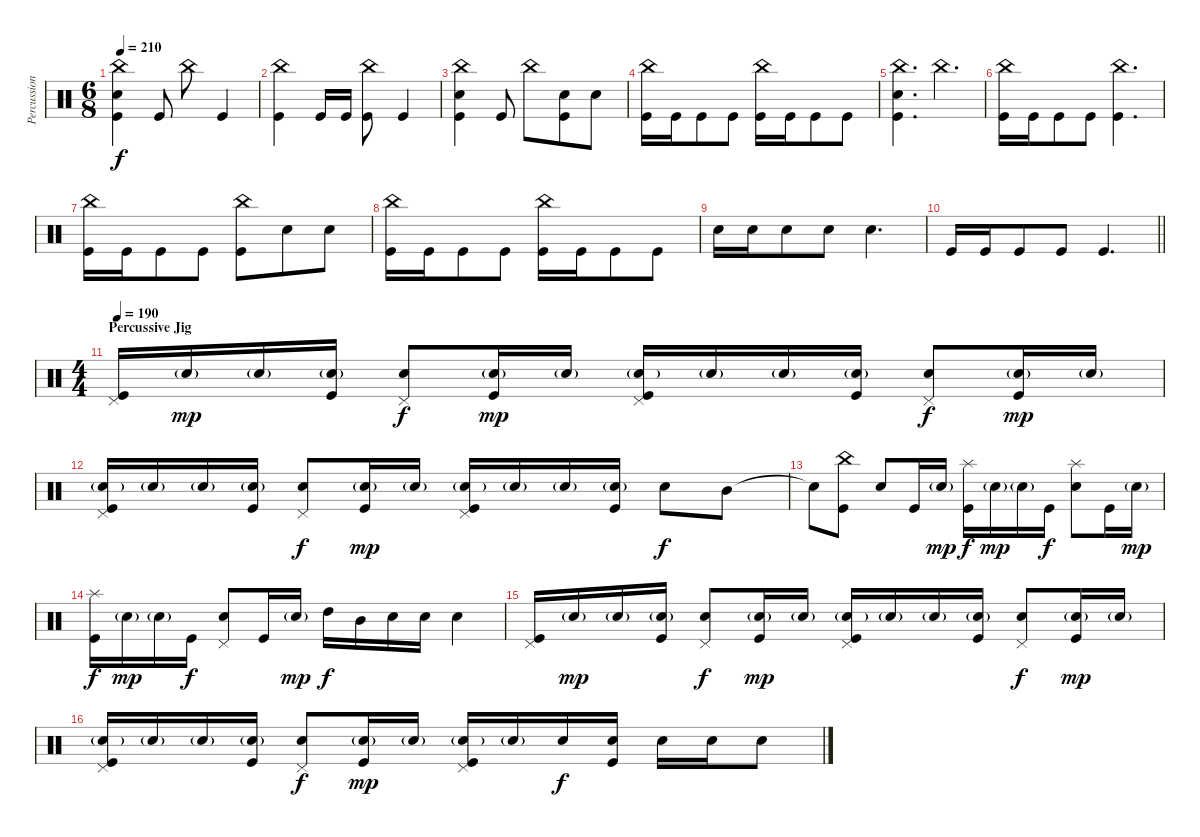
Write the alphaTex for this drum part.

\track ("Percussion" "Percussion") {instrument percussion}
\staff {score}
\articulation defaults
\ts (6 8)
\tempo 210
\clef neutral
\ks c
("China (hit)" "Electric Snare (hit)" "Kick (hit)").4{dy f} "Kick (hit)".8 "China (hit)".8 "Kick (hit)".4 |
("China (hit)" "Kick (hit)").4 "Kick (hit)".16 "Kick (hit)".16 ("China (hit)" "Kick (hit)").8 "Kick (hit)".4 |
("China (hit)" "Electric Snare (hit)" "Kick (hit)").4 "Kick (hit)".8 "China (hit)".8 ("Electric Snare (hit)" "Kick (hit)").8 "Electric Snare (hit)".8 |
("China (hit)" "Kick (hit)").16 "Kick (hit)".16 "Kick (hit)".8 "Kick (hit)".8 ("China (hit)" "Kick (hit)").16 "Kick (hit)".16 "Kick (hit)".8 "Kick (hit)".8 |
("China (hit)" "Electric Snare (hit)" "Kick (hit)").4{d} "China (hit)".4{d} |
("China (hit)" "Kick (hit)").16 "Kick (hit)".16 "Kick (hit)".8 "Kick (hit)".8 ("China (hit)" "Kick (hit)").4{d} |
("China (hit)" "Kick (hit)").16 "Kick (hit)".16 "Kick (hit)".8 "Kick (hit)".8 ("China (hit)" "Kick (hit)").8 "Electric Snare (hit)".8 "Electric Snare (hit)".8 |
("China (hit)" "Kick (hit)").16 "Kick (hit)".16 "Kick (hit)".8 "Kick (hit)".8 ("China (hit)" "Kick (hit)").16 "Kick (hit)".16 "Kick (hit)".8 "Kick (hit)".8 |
"Electric Snare (hit)".16 "Electric Snare (hit)".16 "Electric Snare (hit)".8 "Electric Snare (hit)".8 "Electric Snare (hit)".4{d} |
\barLineRight lightlight "Kick (hit)".16 "Kick (hit)".16 "Kick (hit)".8 "Kick (hit)".8 "Kick (hit)".4{d}
|
\ts (4 4)
\section ("" "Percussive Jig")
\tempo 190
("Pedal Hi-Hat (hit)" "Kick (hit)").16 "Electric Snare (hit)"{g}.16{dy mp} "Electric Snare (hit)"{g}.16 ("Electric Snare (hit)"{g} "Kick (hit)").16 ("Pedal Hi-Hat (hit)" "Electric Snare (hit)").8{dy f} ("Electric Snare (hit)"{g} "Kick (hit)").16{dy mp} "Electric Snare (hit)"{g}.16 ("Pedal Hi-Hat (hit)" "Electric Snare (hit)"{g} "Kick (hit)").16 "Electric Snare (hit)"{g}.16 "Electric Snare (hit)"{g}.16 ("Electric Snare (hit)"{g} "Kick (hit)").16 ("Pedal Hi-Hat (hit)" "Electric Snare (hit)").8{dy f} ("Electric Snare (hit)"{g} "Kick (hit)").16{dy mp} "Electric Snare (hit)"{g}.16 |
("Pedal Hi-Hat (hit)" "Electric Snare (hit)"{g} "Kick (hit)").16 "Electric Snare (hit)"{g}.16 "Electric Snare (hit)"{g}.16 ("Electric Snare (hit)"{g} "Kick (hit)").16 ("Pedal Hi-Hat (hit)" "Electric Snare (hit)").8{dy f} ("Electric Snare (hit)"{g} "Kick (hit)").16{dy mp} "Electric Snare (hit)"{g}.16 ("Pedal Hi-Hat (hit)" "Electric Snare (hit)"{g} "Kick (hit)").16 "Electric Snare (hit)"{g}.16 "Electric Snare (hit)"{g}.16 ("Electric Snare (hit)"{g} "Kick (hit)").16 "Electric Snare (hit)".8{dy f} "Mid Tom (hit)".8 |
"Snare (hit)"{t}.8 ("China (hit)" "Kick (hit)").8 "Electric Snare (hit)".8 "Kick (hit)".16 "Electric Snare (hit)"{g}.16{dy mp} ("Splash (hit)" "Kick (hit)").16{dy f} "Electric Snare (hit)"{g}.16{dy mp} "Electric Snare (hit)"{g}.16 "Kick (hit)".16{dy f} ("Splash (hit)" "Electric Snare (hit)").8 "Kick (hit)".16 "Electric Snare (hit)"{g}.16{dy mp} |
("Splash (hit)" "Kick (hit)").16{dy f} "Electric Snare (hit)"{g}.16{dy mp} "Electric Snare (hit)"{g}.16 "Kick (hit)".16{dy f} ("Pedal Hi-Hat (hit)" "Electric Snare (hit)").8 "Kick (hit)".16 "Electric Snare (hit)"{g}.16{dy mp} "High Tom (hit)".16{dy f} "Mid Tom (hit)".16 "Electric Snare (hit)".16 "Electric Snare (hit)".16 "Electric Snare (hit)".4 |
("Pedal Hi-Hat (hit)" "Kick (hit)").16 "Electric Snare (hit)"{g}.16{dy mp} "Electric Snare (hit)"{g}.16 ("Electric Snare (hit)"{g} "Kick (hit)").16 ("Pedal Hi-Hat (hit)" "Electric Snare (hit)").8{dy f} ("Electric Snare (hit)"{g} "Kick (hit)").16{dy mp} "Electric Snare (hit)"{g}.16 ("Pedal Hi-Hat (hit)" "Electric Snare (hit)"{g} "Kick (hit)").16 "Electric Snare (hit)"{g}.16 "Electric Snare (hit)"{g}.16 ("Electric Snare (hit)"{g} "Kick (hit)").16 ("Pedal Hi-Hat (hit)" "Electric Snare (hit)").8{dy f} ("Electric Snare (hit)"{g} "Kick (hit)").16{dy mp} "Electric Snare (hit)"{g}.16 |
("Pedal Hi-Hat (hit)" "Electric Snare (hit)"{g} "Kick (hit)").16 "Electric Snare (hit)"{g}.16 "Electric Snare (hit)"{g}.16 ("Electric Snare (hit)"{g} "Kick (hit)").16 ("Pedal Hi-Hat (hit)" "Electric Snare (hit)").8{dy f} ("Electric Snare (hit)"{g} "Kick (hit)").16{dy mp} "Electric Snare (hit)"{g}.16 ("Pedal Hi-Hat (hit)" "Electric Snare (hit)"{g} "Kick (hit)").16 "Electric Snare (hit)"{g}.16 "Electric Snare (hit)".16{dy f} ("Electric Snare (hit)" "Kick (hit)").16 "Electric Snare (hit)".16 "Electric Snare (hit)".16 "Electric Snare (hit)".8
